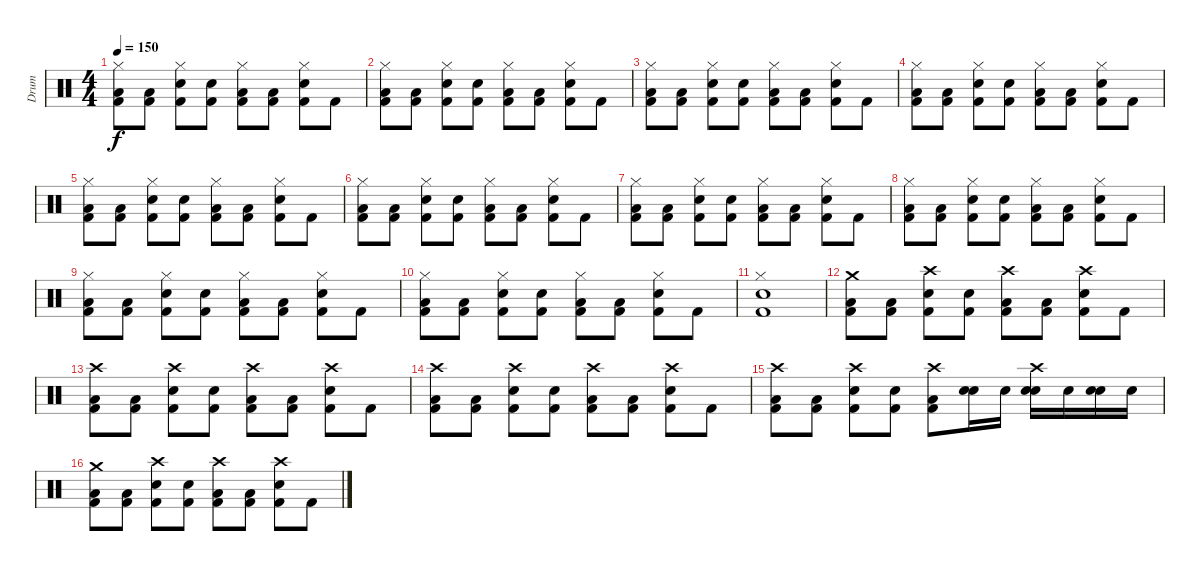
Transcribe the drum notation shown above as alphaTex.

\track ("Drum" "Drum") {instrument percussion}
\staff {score}
\articulation defaults
\ts (4 4)
\tempo 150
\clef neutral
\ks c
("Hi-Hat (closed)" "Low Floor Tom (hit)" "Kick (hit) 2").8{dy f} ("Low Floor Tom (hit)" "Kick (hit) 2").8 ("Hi-Hat (closed)" "Snare (hit) 2" "Kick (hit) 2").8 ("Snare (hit) 2" "Kick (hit) 2").8 ("Hi-Hat (closed)" "Low Floor Tom (hit)" "Kick (hit) 2").8 ("Low Floor Tom (hit)" "Kick (hit) 2").8 ("Hi-Hat (closed)" "Snare (hit) 2" "Kick (hit) 2").8 "Kick (hit) 2".8 |
("Hi-Hat (closed)" "Low Floor Tom (hit)" "Kick (hit) 2").8 ("Low Floor Tom (hit)" "Kick (hit) 2").8 ("Hi-Hat (closed)" "Snare (hit) 2" "Kick (hit) 2").8 ("Snare (hit) 2" "Kick (hit) 2").8 ("Hi-Hat (closed)" "Low Floor Tom (hit)" "Kick (hit) 2").8 ("Low Floor Tom (hit)" "Kick (hit) 2").8 ("Hi-Hat (closed)" "Snare (hit) 2" "Kick (hit) 2").8 "Kick (hit) 2".8 |
("Hi-Hat (closed)" "Low Floor Tom (hit)" "Kick (hit) 2").8 ("Low Floor Tom (hit)" "Kick (hit) 2").8 ("Hi-Hat (closed)" "Snare (hit) 2" "Kick (hit) 2").8 ("Snare (hit) 2" "Kick (hit) 2").8 ("Hi-Hat (closed)" "Low Floor Tom (hit)" "Kick (hit) 2").8 ("Low Floor Tom (hit)" "Kick (hit) 2").8 ("Hi-Hat (closed)" "Snare (hit) 2" "Kick (hit) 2").8 "Kick (hit) 2".8 |
("Hi-Hat (closed)" "Low Floor Tom (hit)" "Kick (hit) 2").8 ("Low Floor Tom (hit)" "Kick (hit) 2").8 ("Hi-Hat (closed)" "Snare (hit) 2" "Kick (hit) 2").8 ("Snare (hit) 2" "Kick (hit) 2").8 ("Hi-Hat (closed)" "Low Floor Tom (hit)" "Kick (hit) 2").8 ("Low Floor Tom (hit)" "Kick (hit) 2").8 ("Hi-Hat (closed)" "Snare (hit) 2" "Kick (hit) 2").8 "Kick (hit) 2".8 |
("Hi-Hat (closed)" "Low Floor Tom (hit)" "Kick (hit) 2").8 ("Low Floor Tom (hit)" "Kick (hit) 2").8 ("Hi-Hat (closed)" "Snare (hit) 2" "Kick (hit) 2").8 ("Snare (hit) 2" "Kick (hit) 2").8 ("Hi-Hat (closed)" "Low Floor Tom (hit)" "Kick (hit) 2").8 ("Low Floor Tom (hit)" "Kick (hit) 2").8 ("Hi-Hat (closed)" "Snare (hit) 2" "Kick (hit) 2").8 "Kick (hit) 2".8 |
("Hi-Hat (closed)" "Low Floor Tom (hit)" "Kick (hit) 2").8 ("Low Floor Tom (hit)" "Kick (hit) 2").8 ("Hi-Hat (closed)" "Snare (hit) 2" "Kick (hit) 2").8 ("Snare (hit) 2" "Kick (hit) 2").8 ("Hi-Hat (closed)" "Low Floor Tom (hit)" "Kick (hit) 2").8 ("Low Floor Tom (hit)" "Kick (hit) 2").8 ("Hi-Hat (closed)" "Snare (hit) 2" "Kick (hit) 2").8 "Kick (hit) 2".8 |
("Hi-Hat (closed)" "Low Floor Tom (hit)" "Kick (hit) 2").8 ("Low Floor Tom (hit)" "Kick (hit) 2").8 ("Hi-Hat (closed)" "Snare (hit) 2" "Kick (hit) 2").8 ("Snare (hit) 2" "Kick (hit) 2").8 ("Hi-Hat (closed)" "Low Floor Tom (hit)" "Kick (hit) 2").8 ("Low Floor Tom (hit)" "Kick (hit) 2").8 ("Hi-Hat (closed)" "Snare (hit) 2" "Kick (hit) 2").8 "Kick (hit) 2".8 |
("Hi-Hat (closed)" "Low Floor Tom (hit)" "Kick (hit) 2").8 ("Low Floor Tom (hit)" "Kick (hit) 2").8 ("Hi-Hat (closed)" "Snare (hit) 2" "Kick (hit) 2").8 ("Snare (hit) 2" "Kick (hit) 2").8 ("Hi-Hat (closed)" "Low Floor Tom (hit)" "Kick (hit) 2").8 ("Low Floor Tom (hit)" "Kick (hit) 2").8 ("Hi-Hat (closed)" "Snare (hit) 2" "Kick (hit) 2").8 "Kick (hit) 2".8 |
("Hi-Hat (closed)" "Low Floor Tom (hit)" "Kick (hit) 2").8 ("Low Floor Tom (hit)" "Kick (hit) 2").8 ("Hi-Hat (closed)" "Snare (hit) 2" "Kick (hit) 2").8 ("Snare (hit) 2" "Kick (hit) 2").8 ("Hi-Hat (closed)" "Low Floor Tom (hit)" "Kick (hit) 2").8 ("Low Floor Tom (hit)" "Kick (hit) 2").8 ("Hi-Hat (closed)" "Snare (hit) 2" "Kick (hit) 2").8 "Kick (hit) 2".8 |
("Hi-Hat (closed)" "Low Floor Tom (hit)" "Kick (hit) 2").8 ("Low Floor Tom (hit)" "Kick (hit) 2").8 ("Hi-Hat (closed)" "Snare (hit) 2" "Kick (hit) 2").8 ("Snare (hit) 2" "Kick (hit) 2").8 ("Hi-Hat (closed)" "Low Floor Tom (hit)" "Kick (hit) 2").8 ("Low Floor Tom (hit)" "Kick (hit) 2").8 ("Hi-Hat (closed)" "Snare (hit) 2" "Kick (hit) 2").8 "Kick (hit) 2".8 |
("Hi-Hat (closed)" "Snare (hit) 2" "Kick (hit) 2").1 |
("Crash medium (hit)" "Low Floor Tom (hit)" "Kick (hit) 2").8 ("Low Floor Tom (hit)" "Kick (hit) 2").8 ("Crash high (hit)" "Snare (hit) 2" "Kick (hit) 2").8 ("Snare (hit) 2" "Kick (hit) 2").8 ("Crash high (hit)" "Low Floor Tom (hit)" "Kick (hit) 2").8 ("Low Floor Tom (hit)" "Kick (hit) 2").8 ("Crash high (hit)" "Snare (hit) 2" "Kick (hit) 2").8 "Kick (hit) 2".8 |
("Crash high (hit)" "Low Floor Tom (hit)" "Kick (hit) 2").8 ("Low Floor Tom (hit)" "Kick (hit) 2").8 ("Crash high (hit)" "Snare (hit) 2" "Kick (hit) 2").8 ("Snare (hit) 2" "Kick (hit) 2").8 ("Crash high (hit)" "Low Floor Tom (hit)" "Kick (hit) 2").8 ("Low Floor Tom (hit)" "Kick (hit) 2").8 ("Crash high (hit)" "Snare (hit) 2" "Kick (hit) 2").8 "Kick (hit) 2".8 |
("Crash high (hit)" "Low Floor Tom (hit)" "Kick (hit) 2").8 ("Low Floor Tom (hit)" "Kick (hit) 2").8 ("Crash high (hit)" "Snare (hit) 2" "Kick (hit) 2").8 ("Snare (hit) 2" "Kick (hit) 2").8 ("Crash high (hit)" "Low Floor Tom (hit)" "Kick (hit) 2").8 ("Low Floor Tom (hit)" "Kick (hit) 2").8 ("Crash high (hit)" "Snare (hit) 2" "Kick (hit) 2").8 "Kick (hit) 2".8 |
("Crash high (hit)" "Low Floor Tom (hit)" "Kick (hit) 2").8 ("Low Floor Tom (hit)" "Kick (hit) 2").8 ("Crash high (hit)" "Snare (hit) 2" "Kick (hit) 2").8 ("Snare (hit) 2" "Kick (hit) 2").8 ("Crash high (hit)" "Low Floor Tom (hit)" "Kick (hit) 2").8 ("Electric Snare (hit)" "Snare (hit) 2").16 "Electric Snare (hit)".16 ("Crash high (hit)" "Electric Snare (hit)" "Snare (hit) 2").16 "Electric Snare (hit)".16 ("Electric Snare (hit)" "Snare (hit) 2").16 "Electric Snare (hit)".16 |
("Crash medium (hit)" "Low Floor Tom (hit)" "Kick (hit) 2").8 ("Low Floor Tom (hit)" "Kick (hit) 2").8 ("Crash high (hit)" "Snare (hit) 2" "Kick (hit) 2").8 ("Snare (hit) 2" "Kick (hit) 2").8 ("Crash high (hit)" "Low Floor Tom (hit)" "Kick (hit) 2").8 ("Low Floor Tom (hit)" "Kick (hit) 2").8 ("Crash high (hit)" "Snare (hit) 2" "Kick (hit) 2").8 "Kick (hit) 2".8
